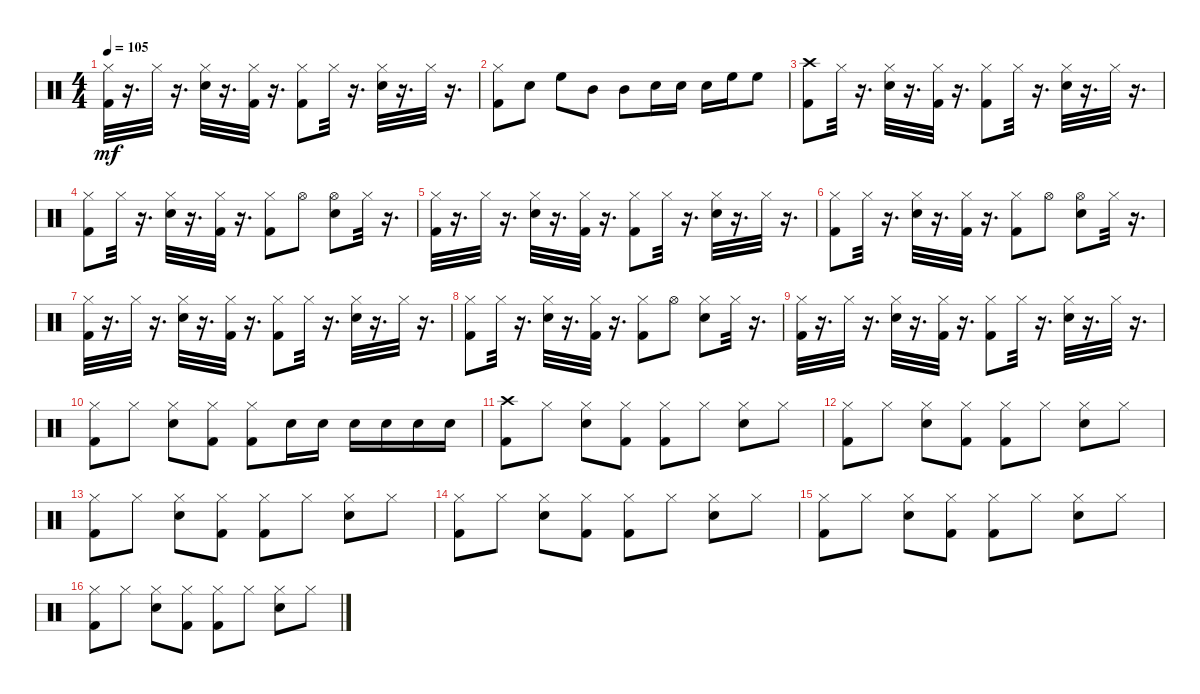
\track "" {instrument percussion}
\staff {score}
\articulation defaults
\ts (4 4)
\tempo 105
\clef neutral
\ks c
("Kick (hit) 2" "Hi-Hat (closed)").32{dy mf} r.16{d} "Hi-Hat (closed)".32 r.16{d} ("Snare (hit) 2" "Hi-Hat (closed)").32 r.16{d} ("Kick (hit) 2" "Hi-Hat (closed)").32 r.16{d} ("Kick (hit) 2" "Hi-Hat (closed)").8 "Hi-Hat (closed)".32 r.16{d} ("Snare (hit) 2" "Hi-Hat (closed)").32 r.16{d} "Hi-Hat (closed)".32 r.16{d} |
("Kick (hit) 2" "Hi-Hat (closed)").8 "Snare (hit) 2".8 "High Floor Tom (hit)".8 "Mid Tom (hit)".8 "Mid Tom (hit)".8 "Snare (hit) 2".16 "Snare (hit) 2".16 "Snare (hit) 2".16 "High Floor Tom (hit)".16 "High Floor Tom (hit)".8 |
("Kick (hit) 2" "Crash high (hit)").8 "Hi-Hat (closed)".32 r.16{d} ("Snare (hit) 2" "Hi-Hat (closed)").32 r.16{d} ("Kick (hit) 2" "Hi-Hat (closed)").32 r.16{d} ("Kick (hit) 2" "Hi-Hat (closed)").8 "Hi-Hat (closed)".32 r.16{d} ("Snare (hit) 2" "Hi-Hat (closed)").32 r.16{d} "Hi-Hat (closed)".32 r.16{d} |
("Kick (hit) 2" "Hi-Hat (closed)").8 "Hi-Hat (closed)".32 r.16{d} ("Snare (hit) 2" "Hi-Hat (closed)").32 r.16{d} ("Kick (hit) 2" "Hi-Hat (closed)").32 r.16{d} ("Kick (hit) 2" "Hi-Hat (closed)").8 "Hi-Hat (open)".8 ("Snare (hit) 2" "Hi-Hat (open)").8 "Hi-Hat (closed)".32 r.16{d} |
("Kick (hit) 2" "Hi-Hat (closed)").32 r.16{d} "Hi-Hat (closed)".32 r.16{d} ("Snare (hit) 2" "Hi-Hat (closed)").32 r.16{d} ("Kick (hit) 2" "Hi-Hat (closed)").32 r.16{d} ("Kick (hit) 2" "Hi-Hat (closed)").8 "Hi-Hat (closed)".32 r.16{d} ("Snare (hit) 2" "Hi-Hat (closed)").32 r.16{d} "Hi-Hat (closed)".32 r.16{d} |
("Kick (hit) 2" "Hi-Hat (closed)").8 "Hi-Hat (closed)".32 r.16{d} ("Snare (hit) 2" "Hi-Hat (closed)").32 r.16{d} ("Kick (hit) 2" "Hi-Hat (closed)").32 r.16{d} ("Kick (hit) 2" "Hi-Hat (closed)").8 "Hi-Hat (open)".8 ("Snare (hit) 2" "Hi-Hat (open)").8 "Hi-Hat (closed)".32 r.16{d} |
("Kick (hit) 2" "Hi-Hat (closed)").32 r.16{d} "Hi-Hat (closed)".32 r.16{d} ("Snare (hit) 2" "Hi-Hat (closed)").32 r.16{d} ("Kick (hit) 2" "Hi-Hat (closed)").32 r.16{d} ("Kick (hit) 2" "Hi-Hat (closed)").8 "Hi-Hat (closed)".32 r.16{d} ("Snare (hit) 2" "Hi-Hat (closed)").32 r.16{d} "Hi-Hat (closed)".32 r.16{d} |
("Kick (hit) 2" "Hi-Hat (closed)").8 "Hi-Hat (closed)".32 r.16{d} ("Snare (hit) 2" "Hi-Hat (closed)").32 r.16{d} ("Kick (hit) 2" "Hi-Hat (closed)").32 r.16{d} ("Kick (hit) 2" "Hi-Hat (closed)").8 "Hi-Hat (open)".8 ("Snare (hit) 2" "Hi-Hat (closed)").8 "Hi-Hat (closed)".32 r.16{d} |
("Kick (hit) 2" "Hi-Hat (closed)").32 r.16{d} "Hi-Hat (closed)".32 r.16{d} ("Snare (hit) 2" "Hi-Hat (closed)").32 r.16{d} ("Kick (hit) 2" "Hi-Hat (closed)").32 r.16{d} ("Kick (hit) 2" "Hi-Hat (closed)").8 "Hi-Hat (closed)".32 r.16{d} ("Snare (hit) 2" "Hi-Hat (closed)").32 r.16{d} "Hi-Hat (closed)".32 r.16{d} |
("Kick (hit) 2" "Hi-Hat (closed)").8 "Hi-Hat (closed)".8 ("Snare (hit) 2" "Hi-Hat (closed)").8 ("Kick (hit) 2" "Hi-Hat (closed)").8 ("Kick (hit) 2" "Hi-Hat (closed)").8 "Snare (hit) 2".16 "Snare (hit) 2".16 "Snare (hit) 2".16 "Snare (hit) 2".16 "Snare (hit) 2".16 "Snare (hit) 2".16 |
("Kick (hit) 2" "Crash high (hit)").8 "Hi-Hat (closed)".8 ("Snare (hit) 2" "Hi-Hat (closed)").8 ("Kick (hit) 2" "Hi-Hat (closed)").8 ("Kick (hit) 2" "Hi-Hat (closed)").8 "Hi-Hat (closed)".8 ("Snare (hit) 2" "Hi-Hat (closed)").8 "Hi-Hat (closed)".8 |
("Kick (hit) 2" "Hi-Hat (closed)").8 "Hi-Hat (closed)".8 ("Snare (hit) 2" "Hi-Hat (closed)").8 ("Kick (hit) 2" "Hi-Hat (closed)").8 ("Kick (hit) 2" "Hi-Hat (closed)").8 "Hi-Hat (closed)".8 ("Snare (hit) 2" "Hi-Hat (closed)").8 "Hi-Hat (closed)".8 |
("Kick (hit) 2" "Hi-Hat (closed)").8 "Hi-Hat (closed)".8 ("Snare (hit) 2" "Hi-Hat (closed)").8 ("Kick (hit) 2" "Hi-Hat (closed)").8 ("Kick (hit) 2" "Hi-Hat (closed)").8 "Hi-Hat (closed)".8 ("Snare (hit) 2" "Hi-Hat (closed)").8 "Hi-Hat (closed)".8 |
("Kick (hit) 2" "Hi-Hat (closed)").8 "Hi-Hat (closed)".8 ("Snare (hit) 2" "Hi-Hat (closed)").8 ("Kick (hit) 2" "Hi-Hat (closed)").8 ("Kick (hit) 2" "Hi-Hat (closed)").8 "Hi-Hat (closed)".8 ("Snare (hit) 2" "Hi-Hat (closed)").8 "Hi-Hat (closed)".8 |
("Kick (hit) 2" "Hi-Hat (closed)").8 "Hi-Hat (closed)".8 ("Snare (hit) 2" "Hi-Hat (closed)").8 ("Kick (hit) 2" "Hi-Hat (closed)").8 ("Kick (hit) 2" "Hi-Hat (closed)").8 "Hi-Hat (closed)".8 ("Snare (hit) 2" "Hi-Hat (closed)").8 "Hi-Hat (closed)".8 |
("Kick (hit) 2" "Hi-Hat (closed)").8 "Hi-Hat (closed)".8 ("Snare (hit) 2" "Hi-Hat (closed)").8 ("Kick (hit) 2" "Hi-Hat (closed)").8 ("Kick (hit) 2" "Hi-Hat (closed)").8 "Hi-Hat (closed)".8 ("Snare (hit) 2" "Hi-Hat (closed)").8 "Hi-Hat (closed)".8
